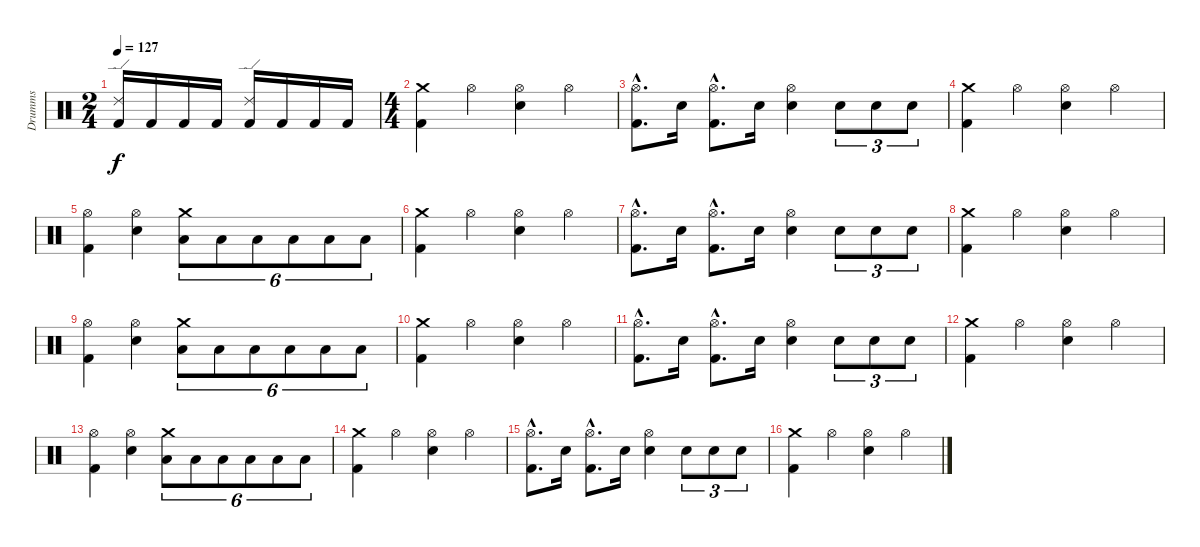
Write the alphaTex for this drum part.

\track ("Drumms" "Drumms") {instrument percussion}
\staff {score}
\articulation defaults
\ts (2 4)
\tempo 127
\clef neutral
\ks c
("Kick (hit) 2" "Ride (edge) 2").16{dy f} "Kick (hit) 2".16 "Kick (hit) 2".16 "Kick (hit) 2".16 ("Kick (hit) 2" "Ride (edge) 2").16 "Kick (hit) 2".16 "Kick (hit) 2".16 "Kick (hit) 2".16 |
\ts (4 4)
("Kick (hit) 2" "Crash medium (hit)").4 "Hi-Hat (open)".4 ("Snare (hit) 2" "Hi-Hat (open)").4 "Hi-Hat (open)".4 |
("Kick (hit) 2"{hac} "Hi-Hat (open)"{hac}).8{d} "Snare (hit) 2".16 ("Kick (hit) 2"{hac} "Hi-Hat (open)"{hac}).8{d} "Snare (hit) 2".16 ("Snare (hit) 2" "Hi-Hat (open)").4 "Snare (hit) 2".8{tu (3 2)} "Snare (hit) 2".8{tu (3 2)} "Snare (hit) 2".8{tu (3 2)} |
("Kick (hit) 2" "Crash medium (hit)").4 "Hi-Hat (open)".4 ("Snare (hit) 2" "Hi-Hat (open)").4 "Hi-Hat (open)".4 |
("Kick (hit) 2" "Hi-Hat (open)").4 ("Snare (hit) 2" "Hi-Hat (open)").4 ("Low Tom (hit)" "Crash medium (hit)").8{tu (6 4)} "Low Tom (hit)".8{tu (6 4)} "Low Tom (hit)".8{tu (6 4)} "Low Tom (hit)".8{tu (6 4)} "Low Tom (hit)".8{tu (6 4)} "Low Tom (hit)".8{tu (6 4)} |
("Kick (hit) 2" "Crash medium (hit)").4 "Hi-Hat (open)".4 ("Snare (hit) 2" "Hi-Hat (open)").4 "Hi-Hat (open)".4 |
("Kick (hit) 2"{hac} "Hi-Hat (open)"{hac}).8{d} "Snare (hit) 2".16 ("Kick (hit) 2"{hac} "Hi-Hat (open)"{hac}).8{d} "Snare (hit) 2".16 ("Snare (hit) 2" "Hi-Hat (open)").4 "Snare (hit) 2".8{tu (3 2)} "Snare (hit) 2".8{tu (3 2)} "Snare (hit) 2".8{tu (3 2)} |
("Kick (hit) 2" "Crash medium (hit)").4 "Hi-Hat (open)".4 ("Snare (hit) 2" "Hi-Hat (open)").4 "Hi-Hat (open)".4 |
("Kick (hit) 2" "Hi-Hat (open)").4 ("Snare (hit) 2" "Hi-Hat (open)").4 ("Low Tom (hit)" "Crash medium (hit)").8{tu (6 4)} "Low Tom (hit)".8{tu (6 4)} "Low Tom (hit)".8{tu (6 4)} "Low Tom (hit)".8{tu (6 4)} "Low Tom (hit)".8{tu (6 4)} "Low Tom (hit)".8{tu (6 4)} |
("Kick (hit) 2" "Crash medium (hit)").4 "Hi-Hat (open)".4 ("Snare (hit) 2" "Hi-Hat (open)").4 "Hi-Hat (open)".4 |
("Kick (hit) 2"{hac} "Hi-Hat (open)"{hac}).8{d} "Snare (hit) 2".16 ("Kick (hit) 2"{hac} "Hi-Hat (open)"{hac}).8{d} "Snare (hit) 2".16 ("Snare (hit) 2" "Hi-Hat (open)").4 "Snare (hit) 2".8{tu (3 2)} "Snare (hit) 2".8{tu (3 2)} "Snare (hit) 2".8{tu (3 2)} |
("Kick (hit) 2" "Crash medium (hit)").4 "Hi-Hat (open)".4 ("Snare (hit) 2" "Hi-Hat (open)").4 "Hi-Hat (open)".4 |
("Kick (hit) 2" "Hi-Hat (open)").4 ("Snare (hit) 2" "Hi-Hat (open)").4 ("Low Tom (hit)" "Crash medium (hit)").8{tu (6 4)} "Low Tom (hit)".8{tu (6 4)} "Low Tom (hit)".8{tu (6 4)} "Low Tom (hit)".8{tu (6 4)} "Low Tom (hit)".8{tu (6 4)} "Low Tom (hit)".8{tu (6 4)} |
("Kick (hit) 2" "Crash medium (hit)").4 "Hi-Hat (open)".4 ("Snare (hit) 2" "Hi-Hat (open)").4 "Hi-Hat (open)".4 |
("Kick (hit) 2"{hac} "Hi-Hat (open)"{hac}).8{d} "Snare (hit) 2".16 ("Kick (hit) 2"{hac} "Hi-Hat (open)"{hac}).8{d} "Snare (hit) 2".16 ("Snare (hit) 2" "Hi-Hat (open)").4 "Snare (hit) 2".8{tu (3 2)} "Snare (hit) 2".8{tu (3 2)} "Snare (hit) 2".8{tu (3 2)} |
("Kick (hit) 2" "Crash medium (hit)").4 "Hi-Hat (open)".4 ("Snare (hit) 2" "Hi-Hat (open)").4 "Hi-Hat (open)".4
